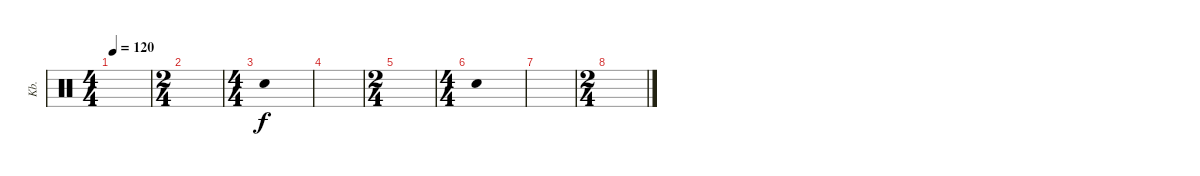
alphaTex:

\track ("Kb." "Kb.") {instrument percussion}
\staff {score}
\articulation defaults
\ts (4 4)
\tempo 120
\clef neutral
\ks c
|
\ts (2 4)
|
\ts (4 4)
"Metronome (bell)".1 |
|
\ts (2 4)
|
\ts (4 4)
"Metronome (bell)".1 |
|
\ts (2 4)
